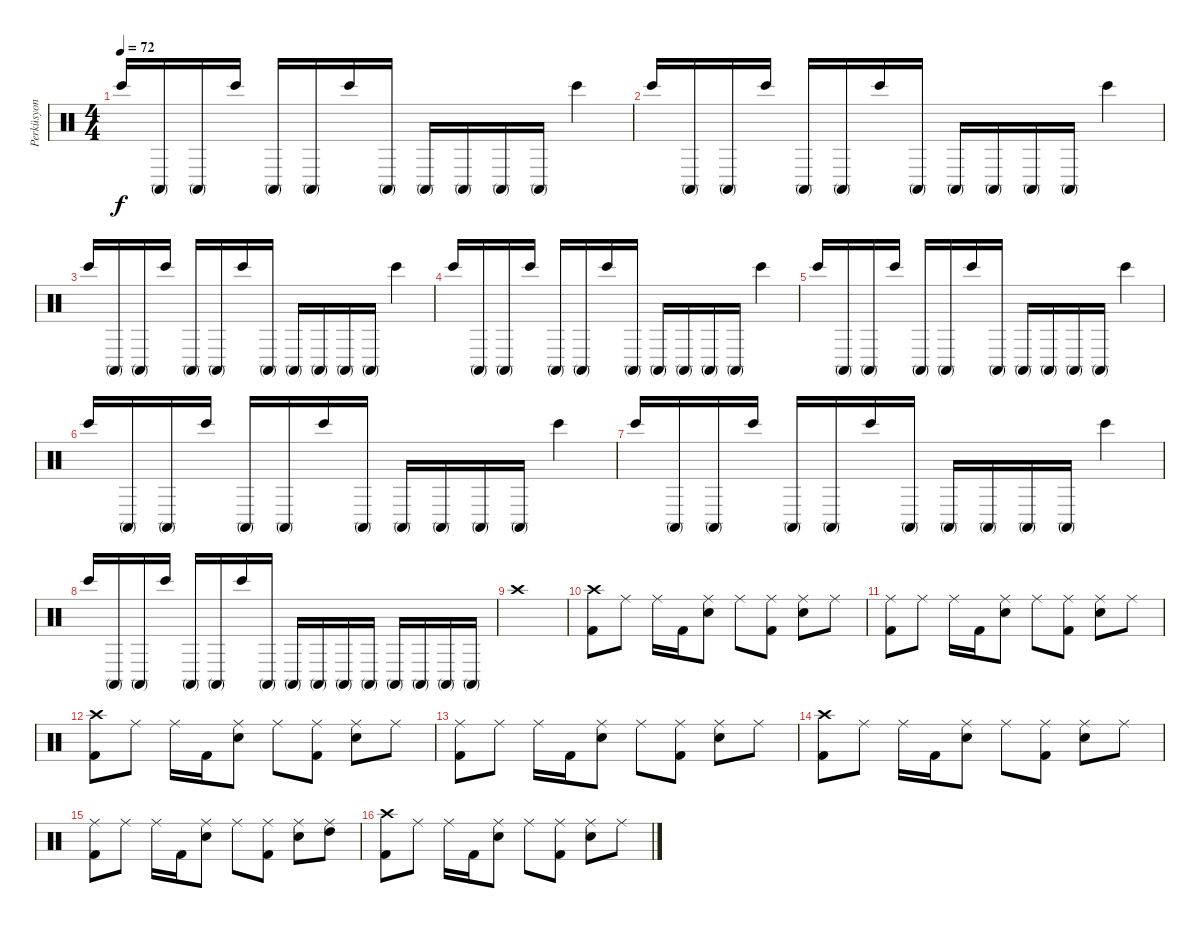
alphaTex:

\track ("Perküsyon" "Perküsyon") {instrument percussion}
\staff {score}
\articulation defaults
\ts (4 4)
\tempo 72
\clef neutral
\ks c "Bongo High (hit)".16{dy f} "Conga high (mute)".16 "Conga high (mute)".16 "Bongo High (hit)".16 "Conga high (mute)".16 "Conga high (mute)".16 "Bongo High (hit)".16 "Conga high (mute)".16 "Conga high (mute)".16 "Conga high (mute)".16 "Conga high (mute)".16 "Conga high (mute)".16 "Bongo High (hit)".4
|
"Bongo High (hit)".16 "Conga high (mute)".16 "Conga high (mute)".16 "Bongo High (hit)".16 "Conga high (mute)".16 "Conga high (mute)".16 "Bongo High (hit)".16 "Conga high (mute)".16 "Conga high (mute)".16 "Conga high (mute)".16 "Conga high (mute)".16 "Conga high (mute)".16 "Bongo High (hit)".4 |
"Bongo High (hit)".16 "Conga high (mute)".16 "Conga high (mute)".16 "Bongo High (hit)".16 "Conga high (mute)".16 "Conga high (mute)".16 "Bongo High (hit)".16 "Conga high (mute)".16 "Conga high (mute)".16 "Conga high (mute)".16 "Conga high (mute)".16 "Conga high (mute)".16 "Bongo High (hit)".4 |
"Bongo High (hit)".16 "Conga high (mute)".16 "Conga high (mute)".16 "Bongo High (hit)".16 "Conga high (mute)".16 "Conga high (mute)".16 "Bongo High (hit)".16 "Conga high (mute)".16 "Conga high (mute)".16 "Conga high (mute)".16 "Conga high (mute)".16 "Conga high (mute)".16 "Bongo High (hit)".4 |
"Bongo High (hit)".16 "Conga high (mute)".16 "Conga high (mute)".16 "Bongo High (hit)".16 "Conga high (mute)".16 "Conga high (mute)".16 "Bongo High (hit)".16 "Conga high (mute)".16 "Conga high (mute)".16 "Conga high (mute)".16 "Conga high (mute)".16 "Conga high (mute)".16 "Bongo High (hit)".4 |
"Bongo High (hit)".16 "Conga high (mute)".16 "Conga high (mute)".16 "Bongo High (hit)".16 "Conga high (mute)".16 "Conga high (mute)".16 "Bongo High (hit)".16 "Conga high (mute)".16 "Conga high (mute)".16 "Conga high (mute)".16 "Conga high (mute)".16 "Conga high (mute)".16 "Bongo High (hit)".4 |
"Bongo High (hit)".16 "Conga high (mute)".16 "Conga high (mute)".16 "Bongo High (hit)".16 "Conga high (mute)".16 "Conga high (mute)".16 "Bongo High (hit)".16 "Conga high (mute)".16 "Conga high (mute)".16 "Conga high (mute)".16 "Conga high (mute)".16 "Conga high (mute)".16 "Bongo High (hit)".4 |
"Bongo High (hit)".16 "Conga high (mute)".16 "Conga high (mute)".16 "Bongo High (hit)".16 "Conga high (mute)".16 "Conga high (mute)".16 "Bongo High (hit)".16 "Conga high (mute)".16 "Conga high (mute)".16 "Conga high (mute)".16 "Conga high (mute)".16 "Conga high (mute)".16 "Conga high (mute)".16 "Conga high (mute)".16 "Conga high (mute)".16 "Conga high (mute)".16 |
"Crash high (hit)".1 |
("Crash high (hit)" "Kick (hit) 2").8 "Ride (middle)".8 "Ride (middle)".16 "Kick (hit) 2".16 ("Ride (middle)" "Electric Snare (hit)").8 "Ride (middle)".8 ("Ride (middle)" "Kick (hit) 2").8 ("Ride (middle)" "Electric Snare (hit)").8 "Ride (middle)".8 |
("Ride (middle)" "Kick (hit) 2").8 "Ride (middle)".8 "Ride (middle)".16 "Kick (hit) 2".16 ("Ride (middle)" "Electric Snare (hit)").8 "Ride (middle)".8 ("Ride (middle)" "Kick (hit) 2").8 ("Ride (middle)" "Electric Snare (hit)").8 "Ride (middle)".8 |
("Crash high (hit)" "Kick (hit) 2").8 "Ride (middle)".8 "Ride (middle)".16 "Kick (hit) 2".16 ("Ride (middle)" "Electric Snare (hit)").8 "Ride (middle)".8 ("Ride (middle)" "Kick (hit) 2").8 ("Ride (middle)" "Electric Snare (hit)").8 "Ride (middle)".8 |
("Ride (middle)" "Kick (hit) 2").8 "Ride (middle)".8 "Ride (middle)".16 "Kick (hit) 2".16 ("Ride (middle)" "Electric Snare (hit)").8 "Ride (middle)".8 ("Ride (middle)" "Kick (hit) 2").8 ("Ride (middle)" "Electric Snare (hit)").8 "Ride (middle)".8 |
("Crash high (hit)" "Kick (hit) 2").8 "Ride (middle)".8 "Ride (middle)".16 "Kick (hit) 2".16 ("Ride (middle)" "Electric Snare (hit)").8 "Ride (middle)".8 ("Ride (middle)" "Kick (hit) 2").8 ("Ride (middle)" "Electric Snare (hit)").8 "Ride (middle)".8 |
("Ride (middle)" "Kick (hit) 2").8 "Ride (middle)".8 "Ride (middle)".16 "Kick (hit) 2".16 ("Ride (middle)" "Electric Snare (hit)").8 "Ride (middle)".8 ("Ride (middle)" "Kick (hit) 2").8 ("Ride (middle)" "Electric Snare (hit)").8 ("Ride (middle)" "High Tom (hit)").8 |
("Crash high (hit)" "Kick (hit) 2").8 "Ride (middle)".8 "Ride (middle)".16 "Kick (hit) 2".16 ("Ride (middle)" "Electric Snare (hit)").8 "Ride (middle)".8 ("Ride (middle)" "Kick (hit) 2").8 ("Ride (middle)" "Electric Snare (hit)").8 "Ride (middle)".8
